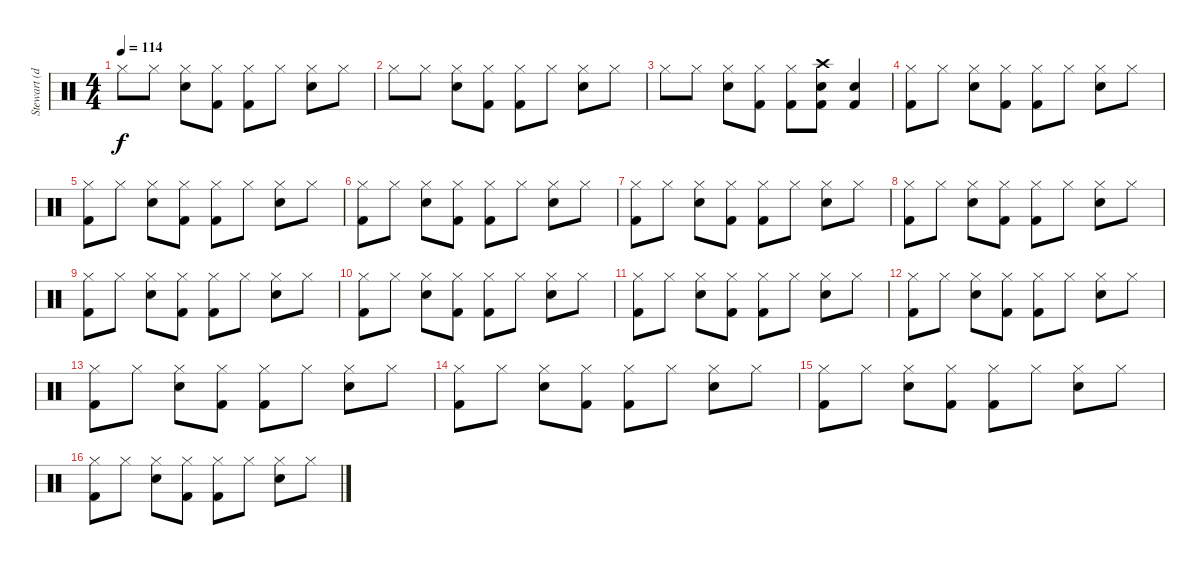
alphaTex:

\track ("Stewart (drums)" "Stewart (d") {instrument percussion}
\staff {score}
\articulation defaults
\ts (4 4)
\tempo 114
\clef neutral
\ks c "Hi-Hat (closed)".8{dy f} "Hi-Hat (closed)".8
("Hi-Hat (closed)" "Snare (hit) 2").8 ("Hi-Hat (closed)" "Kick (hit) 2").8 ("Hi-Hat (closed)" "Kick (hit) 2").8 "Hi-Hat (closed)".8 ("Hi-Hat (closed)" "Snare (hit) 2").8 "Hi-Hat (closed)".8 |
"Hi-Hat (closed)".8 "Hi-Hat (closed)".8 ("Hi-Hat (closed)" "Snare (hit) 2").8 ("Hi-Hat (closed)" "Kick (hit) 2").8 ("Hi-Hat (closed)" "Kick (hit) 2").8 "Hi-Hat (closed)".8 ("Hi-Hat (closed)" "Snare (hit) 2").8 "Hi-Hat (closed)".8 |
"Hi-Hat (closed)".8 "Hi-Hat (closed)".8 ("Hi-Hat (closed)" "Snare (hit) 2").8 ("Hi-Hat (closed)" "Kick (hit) 2").8 ("Hi-Hat (closed)" "Kick (hit) 2").8 ("Crash high (hit)" "Kick (hit) 2" "Snare (hit) 2").8 ("Kick (hit) 2" "Snare (hit) 2").4 |
("Hi-Hat (closed)" "Kick (hit) 2").8 "Hi-Hat (closed)".8 ("Hi-Hat (closed)" "Snare (hit) 2").8 ("Hi-Hat (closed)" "Kick (hit) 2").8 ("Hi-Hat (closed)" "Kick (hit) 2").8 "Hi-Hat (closed)".8 ("Hi-Hat (closed)" "Snare (hit) 2").8 "Hi-Hat (closed)".8 |
("Hi-Hat (closed)" "Kick (hit) 2").8 "Hi-Hat (closed)".8 ("Hi-Hat (closed)" "Snare (hit) 2").8 ("Hi-Hat (closed)" "Kick (hit) 2").8 ("Hi-Hat (closed)" "Kick (hit) 2").8 "Hi-Hat (closed)".8 ("Hi-Hat (closed)" "Snare (hit) 2").8 "Hi-Hat (closed)".8 |
("Hi-Hat (closed)" "Kick (hit) 2").8 "Hi-Hat (closed)".8 ("Hi-Hat (closed)" "Snare (hit) 2").8 ("Hi-Hat (closed)" "Kick (hit) 2").8 ("Hi-Hat (closed)" "Kick (hit) 2").8 "Hi-Hat (closed)".8 ("Hi-Hat (closed)" "Snare (hit) 2").8 "Hi-Hat (closed)".8 |
("Hi-Hat (closed)" "Kick (hit) 2").8 "Hi-Hat (closed)".8 ("Hi-Hat (closed)" "Snare (hit) 2").8 ("Hi-Hat (closed)" "Kick (hit) 2").8 ("Hi-Hat (closed)" "Kick (hit) 2").8 "Hi-Hat (closed)".8 ("Hi-Hat (closed)" "Snare (hit) 2").8 "Hi-Hat (closed)".8 |
("Hi-Hat (closed)" "Kick (hit) 2").8 "Hi-Hat (closed)".8 ("Hi-Hat (closed)" "Snare (hit) 2").8 ("Hi-Hat (closed)" "Kick (hit) 2").8 ("Hi-Hat (closed)" "Kick (hit) 2").8 "Hi-Hat (closed)".8 ("Hi-Hat (closed)" "Snare (hit) 2").8 "Hi-Hat (closed)".8 |
("Hi-Hat (closed)" "Kick (hit) 2").8 "Hi-Hat (closed)".8 ("Hi-Hat (closed)" "Snare (hit) 2").8 ("Hi-Hat (closed)" "Kick (hit) 2").8 ("Hi-Hat (closed)" "Kick (hit) 2").8 "Hi-Hat (closed)".8 ("Hi-Hat (closed)" "Snare (hit) 2").8 "Hi-Hat (closed)".8 |
("Hi-Hat (closed)" "Kick (hit) 2").8 "Hi-Hat (closed)".8 ("Hi-Hat (closed)" "Snare (hit) 2").8 ("Hi-Hat (closed)" "Kick (hit) 2").8 ("Hi-Hat (closed)" "Kick (hit) 2").8 "Hi-Hat (closed)".8 ("Hi-Hat (closed)" "Snare (hit) 2").8 "Hi-Hat (closed)".8 |
("Hi-Hat (closed)" "Kick (hit) 2").8 "Hi-Hat (closed)".8 ("Hi-Hat (closed)" "Snare (hit) 2").8 ("Hi-Hat (closed)" "Kick (hit) 2").8 ("Hi-Hat (closed)" "Kick (hit) 2").8 "Hi-Hat (closed)".8 ("Hi-Hat (closed)" "Snare (hit) 2").8 "Hi-Hat (closed)".8 |
("Hi-Hat (closed)" "Kick (hit) 2").8 "Hi-Hat (closed)".8 ("Hi-Hat (closed)" "Snare (hit) 2").8 ("Hi-Hat (closed)" "Kick (hit) 2").8 ("Hi-Hat (closed)" "Kick (hit) 2").8 "Hi-Hat (closed)".8 ("Hi-Hat (closed)" "Snare (hit) 2").8 "Hi-Hat (closed)".8 |
("Hi-Hat (closed)" "Kick (hit) 2").8 "Hi-Hat (closed)".8 ("Hi-Hat (closed)" "Snare (hit) 2").8 ("Hi-Hat (closed)" "Kick (hit) 2").8 ("Hi-Hat (closed)" "Kick (hit) 2").8 "Hi-Hat (closed)".8 ("Hi-Hat (closed)" "Snare (hit) 2").8 "Hi-Hat (closed)".8 |
("Hi-Hat (closed)" "Kick (hit) 2").8 "Hi-Hat (closed)".8 ("Hi-Hat (closed)" "Snare (hit) 2").8 ("Hi-Hat (closed)" "Kick (hit) 2").8 ("Hi-Hat (closed)" "Kick (hit) 2").8 "Hi-Hat (closed)".8 ("Hi-Hat (closed)" "Snare (hit) 2").8 "Hi-Hat (closed)".8 |
("Hi-Hat (closed)" "Kick (hit) 2").8 "Hi-Hat (closed)".8 ("Hi-Hat (closed)" "Snare (hit) 2").8 ("Hi-Hat (closed)" "Kick (hit) 2").8 ("Hi-Hat (closed)" "Kick (hit) 2").8 "Hi-Hat (closed)".8 ("Hi-Hat (closed)" "Snare (hit) 2").8 "Hi-Hat (closed)".8 |
("Hi-Hat (closed)" "Kick (hit) 2").8 "Hi-Hat (closed)".8 ("Hi-Hat (closed)" "Snare (hit) 2").8 ("Hi-Hat (closed)" "Kick (hit) 2").8 ("Hi-Hat (closed)" "Kick (hit) 2").8 "Hi-Hat (closed)".8 ("Hi-Hat (closed)" "Snare (hit) 2").8 "Hi-Hat (closed)".8
